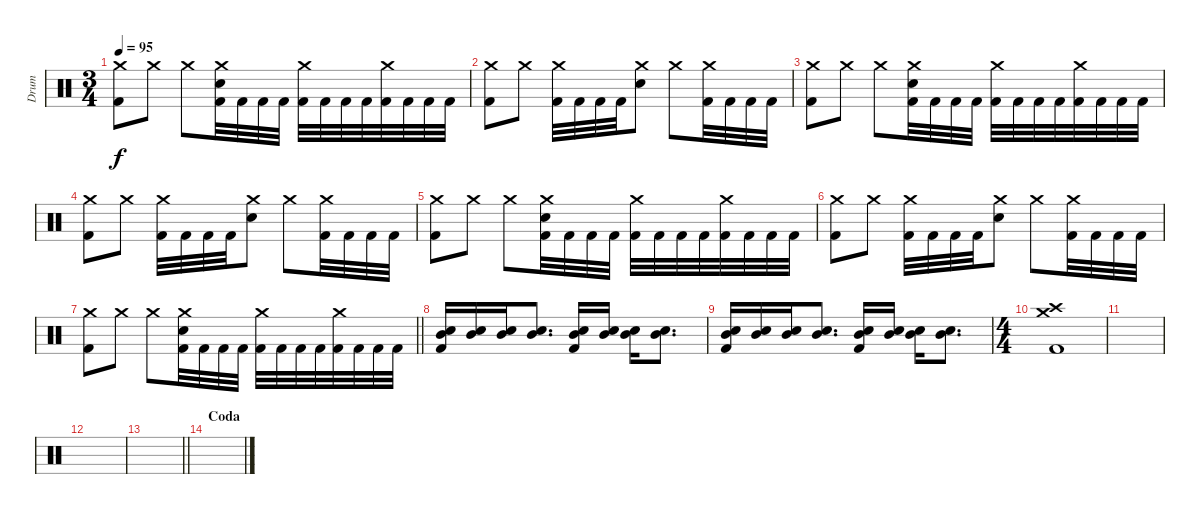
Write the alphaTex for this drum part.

\track ("Drum" "Drum") {instrument percussion}
\staff {score}
\articulation defaults
\ts (3 4)
\tempo 95
\clef neutral
\ks c
("Crash medium (hit)" "Kick (hit) 2").8{dy f} "Crash medium (hit)".8 "Crash medium (hit)".8 ("Crash medium (hit)" "Electric Snare (hit)" "Kick (hit) 2").32 "Kick (hit) 2".32 "Kick (hit) 2".32 "Kick (hit) 2".32 ("Crash medium (hit)" "Kick (hit) 2").32 "Kick (hit) 2".32 "Kick (hit) 2".32 "Kick (hit) 2".32 ("Crash medium (hit)" "Kick (hit) 2").32 "Kick (hit) 2".32 "Kick (hit) 2".32 "Kick (hit) 2".32 |
("Crash medium (hit)" "Kick (hit) 2").8 "Crash medium (hit)".8 ("Crash medium (hit)" "Kick (hit) 2").32 "Kick (hit) 2".32 "Kick (hit) 2".32 "Kick (hit) 2".32 ("Crash medium (hit)" "Electric Snare (hit)").8 "Crash medium (hit)".8 ("Crash medium (hit)" "Kick (hit) 2").32 "Kick (hit) 2".32 "Kick (hit) 2".32 "Kick (hit) 2".32 |
("Crash medium (hit)" "Kick (hit) 2").8 "Crash medium (hit)".8 "Crash medium (hit)".8 ("Crash medium (hit)" "Electric Snare (hit)" "Kick (hit) 2").32 "Kick (hit) 2".32 "Kick (hit) 2".32 "Kick (hit) 2".32 ("Crash medium (hit)" "Kick (hit) 2").32 "Kick (hit) 2".32 "Kick (hit) 2".32 "Kick (hit) 2".32 ("Crash medium (hit)" "Kick (hit) 2").32 "Kick (hit) 2".32 "Kick (hit) 2".32 "Kick (hit) 2".32 |
("Crash medium (hit)" "Kick (hit) 2").8 "Crash medium (hit)".8 ("Crash medium (hit)" "Kick (hit) 2").32 "Kick (hit) 2".32 "Kick (hit) 2".32 "Kick (hit) 2".32 ("Crash medium (hit)" "Electric Snare (hit)").8 "Crash medium (hit)".8 ("Crash medium (hit)" "Kick (hit) 2").32 "Kick (hit) 2".32 "Kick (hit) 2".32 "Kick (hit) 2".32 |
("Crash medium (hit)" "Kick (hit) 2").8 "Crash medium (hit)".8 "Crash medium (hit)".8 ("Crash medium (hit)" "Electric Snare (hit)" "Kick (hit) 2").32 "Kick (hit) 2".32 "Kick (hit) 2".32 "Kick (hit) 2".32 ("Crash medium (hit)" "Kick (hit) 2").32 "Kick (hit) 2".32 "Kick (hit) 2".32 "Kick (hit) 2".32 ("Crash medium (hit)" "Kick (hit) 2").32 "Kick (hit) 2".32 "Kick (hit) 2".32 "Kick (hit) 2".32 |
("Crash medium (hit)" "Kick (hit) 2").8 "Crash medium (hit)".8 ("Crash medium (hit)" "Kick (hit) 2").32 "Kick (hit) 2".32 "Kick (hit) 2".32 "Kick (hit) 2".32 ("Crash medium (hit)" "Electric Snare (hit)").8 "Crash medium (hit)".8 ("Crash medium (hit)" "Kick (hit) 2").32 "Kick (hit) 2".32 "Kick (hit) 2".32 "Kick (hit) 2".32 |
\barLineRight lightlight
("Crash medium (hit)" "Kick (hit) 2").8 "Crash medium (hit)".8 "Crash medium (hit)".8 ("Crash medium (hit)" "Electric Snare (hit)" "Kick (hit) 2").32 "Kick (hit) 2".32 "Kick (hit) 2".32 "Kick (hit) 2".32 ("Crash medium (hit)" "Kick (hit) 2").32 "Kick (hit) 2".32 "Kick (hit) 2".32 "Kick (hit) 2".32 ("Crash medium (hit)" "Kick (hit) 2").32 "Kick (hit) 2".32 "Kick (hit) 2".32 "Kick (hit) 2".32 |
("Electric Snare (hit)" "Mid Tom (hit)" "Kick (hit) 2").16 ("Electric Snare (hit)" "Mid Tom (hit)").16 ("Electric Snare (hit)" "Mid Tom (hit)").16 ("Electric Snare (hit)" "Mid Tom (hit)").8{d} ("Electric Snare (hit)" "Mid Tom (hit)" "Kick (hit) 2").16 ("Electric Snare (hit)" "Mid Tom (hit)").16 ("Electric Snare (hit)" "Mid Tom (hit)").16 ("Electric Snare (hit)" "Mid Tom (hit)").8{d} |
("Electric Snare (hit)" "Mid Tom (hit)" "Kick (hit) 2").16 ("Electric Snare (hit)" "Mid Tom (hit)").16 ("Electric Snare (hit)" "Mid Tom (hit)").16 ("Electric Snare (hit)" "Mid Tom (hit)").8{d} ("Electric Snare (hit)" "Mid Tom (hit)" "Kick (hit) 2").16 ("Electric Snare (hit)" "Mid Tom (hit)").16 ("Electric Snare (hit)" "Mid Tom (hit)").16 ("Electric Snare (hit)" "Mid Tom (hit)").8{d} |
\ts (4 4)
("Crash medium (hit)" "Crash high (hit)" "Kick (hit) 2").1 |
|
|
\barLineRight lightlight
|
\section ("" "Coda")
